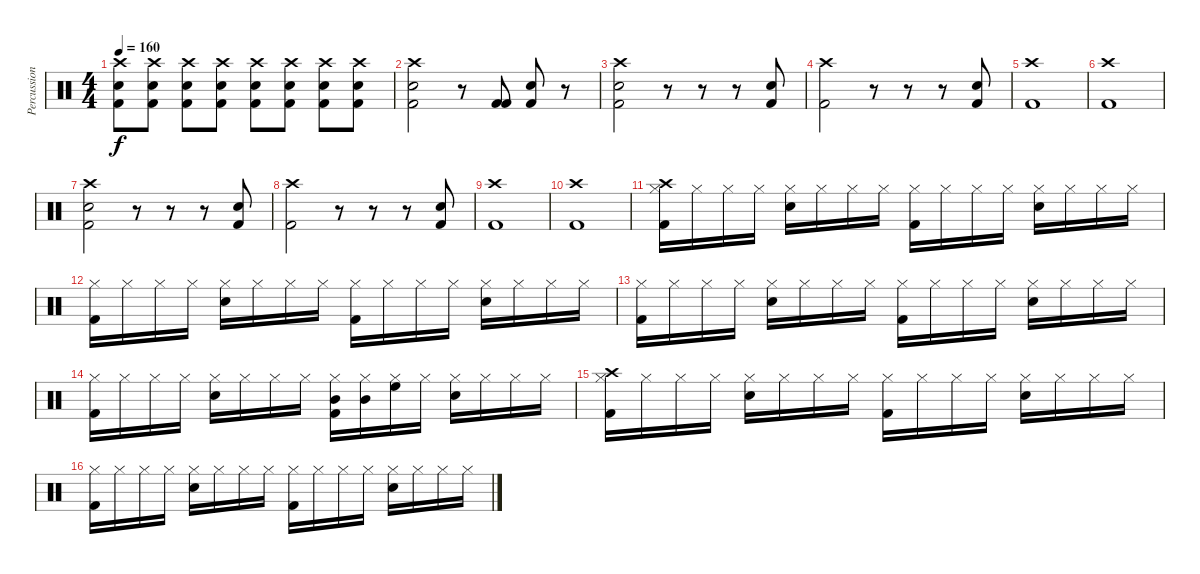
\track ("Percussion" "Percussion") {instrument percussion}
\staff {score}
\articulation defaults
\ts (4 4)
\tempo 160
\clef neutral
\ks c
("Kick (hit) 2" "Electric Snare (hit)" "Crash high (hit)").8{dy f} ("Kick (hit) 2" "Electric Snare (hit)" "Crash high (hit)").8 ("Kick (hit) 2" "Electric Snare (hit)" "Crash high (hit)").8 ("Kick (hit) 2" "Electric Snare (hit)" "Crash high (hit)").8 ("Kick (hit) 2" "Electric Snare (hit)" "Crash high (hit)").8 ("Kick (hit) 2" "Electric Snare (hit)" "Crash high (hit)").8 ("Kick (hit) 2" "Electric Snare (hit)" "Crash high (hit)").8 ("Kick (hit) 2" "Electric Snare (hit)" "Crash high (hit)").8 |
("Kick (hit) 2" "Electric Snare (hit)" "Crash high (hit)").2 r.8 ("Kick (hit) 2" "Kick (hit) 2").8 ("Kick (hit) 2" "Electric Snare (hit)").8 r.8 |
("Kick (hit) 2" "Electric Snare (hit)" "Crash high (hit)").2 r.8 r.8 r.8 ("Kick (hit) 2" "Electric Snare (hit)").8 |
("Kick (hit) 2" "Crash high (hit)").2 r.8 r.8 r.8 ("Kick (hit) 2" "Electric Snare (hit)").8 |
("Kick (hit) 2" "Crash high (hit)").1 |
("Kick (hit) 2" "Crash high (hit)").1 |
("Kick (hit) 2" "Electric Snare (hit)" "Crash high (hit)").2 r.8 r.8 r.8 ("Kick (hit) 2" "Electric Snare (hit)").8 |
("Kick (hit) 2" "Crash high (hit)").2 r.8 r.8 r.8 ("Kick (hit) 2" "Electric Snare (hit)").8 |
("Kick (hit) 2" "Crash high (hit)").1 |
("Kick (hit) 2" "Crash high (hit)").1 |
("Kick (hit) 2" "Hi-Hat (closed)" "Crash high (hit)").16 "Hi-Hat (closed)".16 "Hi-Hat (closed)".16 "Hi-Hat (closed)".16 ("Electric Snare (hit)" "Hi-Hat (closed)").16 "Hi-Hat (closed)".16 "Hi-Hat (closed)".16 "Hi-Hat (closed)".16 ("Kick (hit) 2" "Hi-Hat (closed)").16 "Hi-Hat (closed)".16 "Hi-Hat (closed)".16 "Hi-Hat (closed)".16 ("Electric Snare (hit)" "Hi-Hat (closed)").16 "Hi-Hat (closed)".16 "Hi-Hat (closed)".16 "Hi-Hat (closed)".16 |
("Kick (hit) 2" "Hi-Hat (closed)").16 "Hi-Hat (closed)".16 "Hi-Hat (closed)".16 "Hi-Hat (closed)".16 ("Electric Snare (hit)" "Hi-Hat (closed)").16 "Hi-Hat (closed)".16 "Hi-Hat (closed)".16 "Hi-Hat (closed)".16 ("Kick (hit) 2" "Hi-Hat (closed)").16 "Hi-Hat (closed)".16 "Hi-Hat (closed)".16 "Hi-Hat (closed)".16 ("Electric Snare (hit)" "Hi-Hat (closed)").16 "Hi-Hat (closed)".16 "Hi-Hat (closed)".16 "Hi-Hat (closed)".16 |
("Kick (hit) 2" "Hi-Hat (closed)").16 "Hi-Hat (closed)".16 "Hi-Hat (closed)".16 "Hi-Hat (closed)".16 ("Electric Snare (hit)" "Hi-Hat (closed)").16 "Hi-Hat (closed)".16 "Hi-Hat (closed)".16 "Hi-Hat (closed)".16 ("Kick (hit) 2" "Hi-Hat (closed)").16 "Hi-Hat (closed)".16 "Hi-Hat (closed)".16 "Hi-Hat (closed)".16 ("Electric Snare (hit)" "Hi-Hat (closed)").16 "Hi-Hat (closed)".16 "Hi-Hat (closed)".16 "Hi-Hat (closed)".16 |
("Kick (hit) 2" "Hi-Hat (closed)").16 "Hi-Hat (closed)".16 "Hi-Hat (closed)".16 "Hi-Hat (closed)".16 ("Electric Snare (hit)" "Hi-Hat (closed)").16 "Hi-Hat (closed)".16 "Hi-Hat (closed)".16 "Hi-Hat (closed)".16 ("Kick (hit) 2" "Hi-Hat (closed)" "Mid Tom (hit)").16 ("Hi-Hat (closed)" "Mid Tom (hit)").16 ("Hi-Hat (closed)" "High Floor Tom (hit)").16 "Hi-Hat (closed)".16 ("Electric Snare (hit)" "Hi-Hat (closed)").16 "Hi-Hat (closed)".16 "Hi-Hat (closed)".16 "Hi-Hat (closed)".16 |
("Kick (hit) 2" "Hi-Hat (closed)" "Crash high (hit)").16 "Hi-Hat (closed)".16 "Hi-Hat (closed)".16 "Hi-Hat (closed)".16 ("Electric Snare (hit)" "Hi-Hat (closed)").16 "Hi-Hat (closed)".16 "Hi-Hat (closed)".16 "Hi-Hat (closed)".16 ("Kick (hit) 2" "Hi-Hat (closed)").16 "Hi-Hat (closed)".16 "Hi-Hat (closed)".16 "Hi-Hat (closed)".16 ("Electric Snare (hit)" "Hi-Hat (closed)").16 "Hi-Hat (closed)".16 "Hi-Hat (closed)".16 "Hi-Hat (closed)".16 |
("Kick (hit) 2" "Hi-Hat (closed)").16 "Hi-Hat (closed)".16 "Hi-Hat (closed)".16 "Hi-Hat (closed)".16 ("Electric Snare (hit)" "Hi-Hat (closed)").16 "Hi-Hat (closed)".16 "Hi-Hat (closed)".16 "Hi-Hat (closed)".16 ("Kick (hit) 2" "Hi-Hat (closed)").16 "Hi-Hat (closed)".16 "Hi-Hat (closed)".16 "Hi-Hat (closed)".16 ("Electric Snare (hit)" "Hi-Hat (closed)").16 "Hi-Hat (closed)".16 "Hi-Hat (closed)".16 "Hi-Hat (closed)".16
